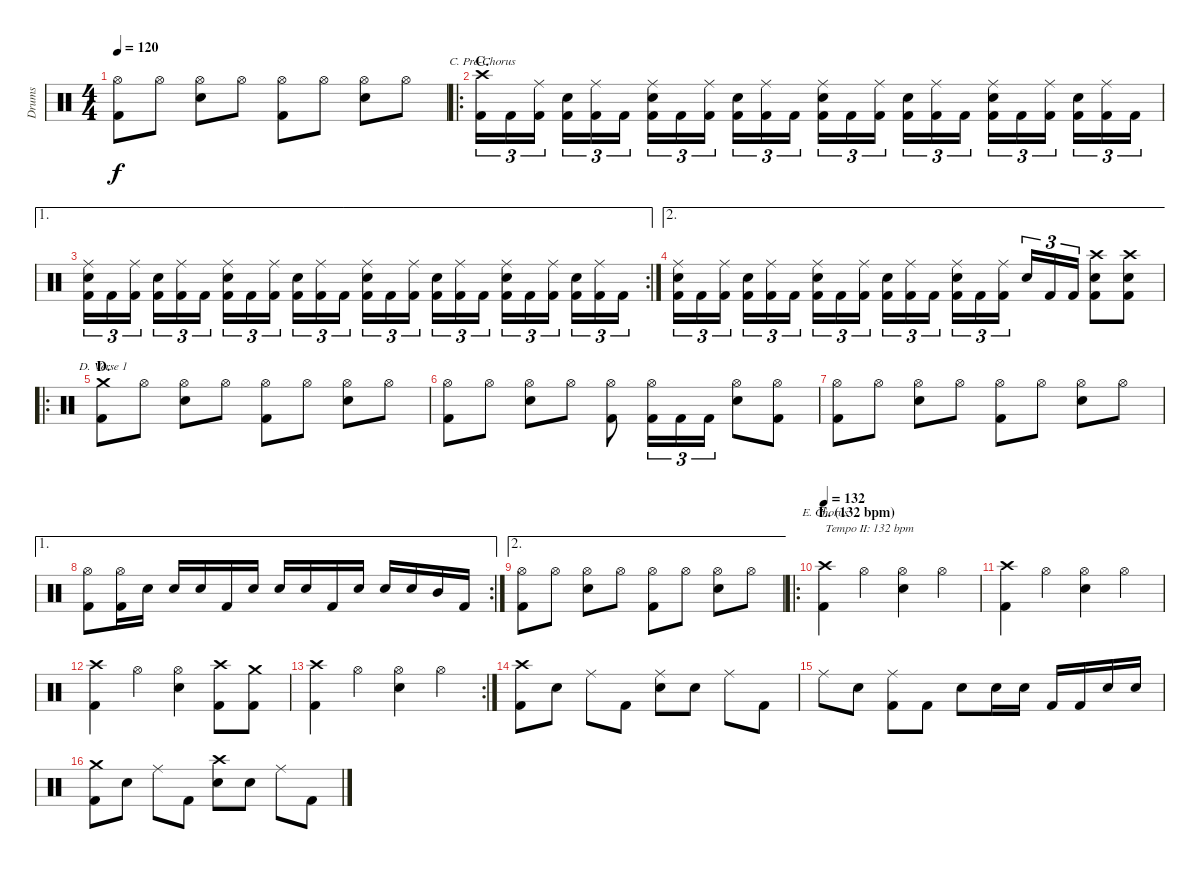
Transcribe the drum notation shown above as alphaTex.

\track ("Drums" "Drums") {instrument percussion}
\staff {score}
\articulation defaults
\chord ("C. Pre-Chorus") {firstfret 0}
\chord ("D. Verse 1") {firstfret 0}
\chord ("E. Chorus") {firstfret 0}
\ts (4 4)
\tempo 120
\clef neutral
\ks c
("Hi-Hat (open)" "Kick (hit) 2").8{dy f} "Hi-Hat (open)".8 ("Hi-Hat (open)" "Snare (hit) 2").8 "Hi-Hat (open)".8 ("Hi-Hat (open)" "Kick (hit) 2").8 "Hi-Hat (open)".8 ("Hi-Hat (open)" "Snare (hit) 2").8 "Hi-Hat (open)".8 |
\ro
\section ("" "C.")
("Crash high (hit)" "Kick (hit) 2").16{tu (3 2) ch "C. Pre-Chorus"} "Kick (hit) 2".16{tu (3 2)} ("Ride (middle)" "Kick (hit) 2").16{tu (3 2)} ("Snare (hit) 2" "Kick (hit) 2").16{tu (3 2)} ("Ride (middle)" "Kick (hit) 2").16{tu (3 2)} "Kick (hit) 2".16{tu (3 2)} ("Ride (middle)" "Snare (hit) 2" "Kick (hit) 2").16{tu (3 2)} "Kick (hit) 2".16{tu (3 2)} ("Ride (middle)" "Kick (hit) 2").16{tu (3 2)} ("Snare (hit) 2" "Kick (hit) 2").16{tu (3 2)} ("Ride (middle)" "Kick (hit) 2").16{tu (3 2)} "Kick (hit) 2".16{tu (3 2)} ("Ride (middle)" "Snare (hit) 2" "Kick (hit) 2").16{tu (3 2)} "Kick (hit) 2".16{tu (3 2)} ("Ride (middle)" "Kick (hit) 2").16{tu (3 2)} ("Snare (hit) 2" "Kick (hit) 2").16{tu (3 2)} ("Ride (middle)" "Kick (hit) 2").16{tu (3 2)} "Kick (hit) 2".16{tu (3 2)} ("Ride (middle)" "Snare (hit) 2" "Kick (hit) 2").16{tu (3 2)} "Kick (hit) 2".16{tu (3 2)} ("Ride (middle)" "Kick (hit) 2").16{tu (3 2)} ("Snare (hit) 2" "Kick (hit) 2").16{tu (3 2)} ("Ride (middle)" "Kick (hit) 2").16{tu (3 2)} "Kick (hit) 2".16{tu (3 2)} |
\ae 1
\rc 2
("Ride (middle)" "Snare (hit) 2" "Kick (hit) 2").16{tu (3 2)} "Kick (hit) 2".16{tu (3 2)} ("Ride (middle)" "Kick (hit) 2").16{tu (3 2)} ("Snare (hit) 2" "Kick (hit) 2").16{tu (3 2)} ("Ride (middle)" "Kick (hit) 2").16{tu (3 2)} "Kick (hit) 2".16{tu (3 2)} ("Ride (middle)" "Snare (hit) 2" "Kick (hit) 2").16{tu (3 2)} "Kick (hit) 2".16{tu (3 2)} ("Ride (middle)" "Kick (hit) 2").16{tu (3 2)} ("Snare (hit) 2" "Kick (hit) 2").16{tu (3 2)} ("Ride (middle)" "Kick (hit) 2").16{tu (3 2)} "Kick (hit) 2".16{tu (3 2)} ("Ride (middle)" "Snare (hit) 2" "Kick (hit) 2").16{tu (3 2)} "Kick (hit) 2".16{tu (3 2)} ("Ride (middle)" "Kick (hit) 2").16{tu (3 2)} ("Snare (hit) 2" "Kick (hit) 2").16{tu (3 2)} ("Ride (middle)" "Kick (hit) 2").16{tu (3 2)} "Kick (hit) 2".16{tu (3 2)} ("Ride (middle)" "Snare (hit) 2" "Kick (hit) 2").16{tu (3 2)} "Kick (hit) 2".16{tu (3 2)} ("Ride (middle)" "Kick (hit) 2").16{tu (3 2)} ("Snare (hit) 2" "Kick (hit) 2").16{tu (3 2)} ("Ride (middle)" "Kick (hit) 2").16{tu (3 2)} "Kick (hit) 2".16{tu (3 2)} |
\ae 2
("Ride (middle)" "Snare (hit) 2" "Kick (hit) 2").16{tu (3 2)} "Kick (hit) 2".16{tu (3 2)} ("Ride (middle)" "Kick (hit) 2").16{tu (3 2)} ("Snare (hit) 2" "Kick (hit) 2").16{tu (3 2)} ("Ride (middle)" "Kick (hit) 2").16{tu (3 2)} "Kick (hit) 2".16{tu (3 2)} ("Ride (middle)" "Snare (hit) 2" "Kick (hit) 2").16{tu (3 2)} "Kick (hit) 2".16{tu (3 2)} ("Ride (middle)" "Kick (hit) 2").16{tu (3 2)} ("Snare (hit) 2" "Kick (hit) 2").16{tu (3 2)} ("Ride (middle)" "Kick (hit) 2").16{tu (3 2)} "Kick (hit) 2".16{tu (3 2)} ("Ride (middle)" "Snare (hit) 2" "Kick (hit) 2").16{tu (3 2)} "Kick (hit) 2".16{tu (3 2)} ("Ride (middle)" "Kick (hit) 2").16{tu (3 2)} "Snare (hit) 2".16{tu (3 2)} "Kick (hit) 2".16{tu (3 2)} "Kick (hit) 2".16{tu (3 2)} ("Crash high (hit)" "Snare (hit) 2" "Kick (hit) 2").8 ("Crash high (hit)" "Snare (hit) 2" "Kick (hit) 2").8 |
\ro
\section ("" "D.")
("Crash medium (hit)" "Kick (hit) 2").8{ch "D. Verse 1"} "Hi-Hat (open)".8 ("Hi-Hat (open)" "Snare (hit) 2").8 "Hi-Hat (open)".8 ("Hi-Hat (open)" "Kick (hit) 2").8 "Hi-Hat (open)".8 ("Hi-Hat (open)" "Snare (hit) 2").8 "Hi-Hat (open)".8 |
("Hi-Hat (open)" "Kick (hit) 2").8 "Hi-Hat (open)".8 ("Hi-Hat (open)" "Snare (hit) 2").8 "Hi-Hat (open)".8 ("Hi-Hat (open)" "Kick (hit) 2").8 ("Hi-Hat (open)" "Kick (hit) 2").16{tu (3 2)} "Kick (hit) 2".16{tu (3 2)} "Kick (hit) 2".16{tu (3 2)} ("Hi-Hat (open)" "Snare (hit) 2").8 ("Hi-Hat (open)" "Kick (hit) 2").8 |
("Hi-Hat (open)" "Kick (hit) 2").8 "Hi-Hat (open)".8 ("Hi-Hat (open)" "Snare (hit) 2").8 "Hi-Hat (open)".8 ("Hi-Hat (open)" "Kick (hit) 2").8 "Hi-Hat (open)".8 ("Hi-Hat (open)" "Snare (hit) 2").8 "Hi-Hat (open)".8 |
\ae 1
\rc 2
("Hi-Hat (open)" "Kick (hit) 2").8 ("Hi-Hat (open)" "Kick (hit) 2").16 "Snare (hit) 2".16 "Snare (hit) 2".16 "Snare (hit) 2".16 "Kick (hit) 2".16 "Snare (hit) 2".16 "Snare (hit) 2".16 "Snare (hit) 2".16 "Kick (hit) 2".16 "Snare (hit) 2".16 "Snare (hit) 2".16 "Snare (hit) 2".16 "Mid Tom (hit)".16 "Kick (hit) 2".16 |
\ae 2
("Hi-Hat (open)" "Kick (hit) 2").8 "Hi-Hat (open)".8 ("Hi-Hat (open)" "Snare (hit) 2").8 "Hi-Hat (open)".8 ("Hi-Hat (open)" "Kick (hit) 2").8 "Hi-Hat (open)".8 ("Hi-Hat (open)" "Snare (hit) 2").8 "Hi-Hat (open)".8 |
\ro
\section ("" "E. (132 bpm)")
\tempo 132
("Crash high (hit)" "Kick (hit) 2").4{ch "E. Chorus" txt "Tempo II: 132 bpm"} "Hi-Hat (open)".4 ("Hi-Hat (open)" "Snare (hit) 2").4 "Hi-Hat (open)".4 |
("Crash high (hit)" "Kick (hit) 2").4 "Hi-Hat (open)".4 ("Hi-Hat (open)" "Snare (hit) 2").4 "Hi-Hat (open)".4 |
("Crash high (hit)" "Kick (hit) 2").4 "Hi-Hat (open)".4 ("Hi-Hat (open)" "Snare (hit) 2").4 ("Crash high (hit)" "Kick (hit) 2").8 ("Crash medium (hit)" "Kick (hit) 2").8 |
\rc 2
("Crash high (hit)" "Kick (hit) 2").4 "Hi-Hat (open)".4 ("Hi-Hat (open)" "Snare (hit) 2").4 "Hi-Hat (open)".4 |
("Crash high (hit)" "Kick (hit) 2").8 "Snare (hit) 2".8 "Ride (middle)".8 "Kick (hit) 2".8 ("Ride (middle)" "Snare (hit) 2").8 "Snare (hit) 2".8 "Ride (middle)".8 "Kick (hit) 2".8 |
"Ride (middle)".8 "Snare (hit) 2".8 ("Ride (middle)" "Kick (hit) 2").8 "Kick (hit) 2".8 "Snare (hit) 2".8 "Snare (hit) 2".16 "Snare (hit) 2".16 "Kick (hit) 2".16 "Kick (hit) 2".16 "Snare (hit) 2".16 "Snare (hit) 2".16 |
("Crash medium (hit)" "Kick (hit) 2").8 "Snare (hit) 2".8 "Ride (middle)".8 "Kick (hit) 2".8 ("Crash high (hit)" "Snare (hit) 2").8 "Snare (hit) 2".8 "Ride (middle)".8 "Kick (hit) 2".8
